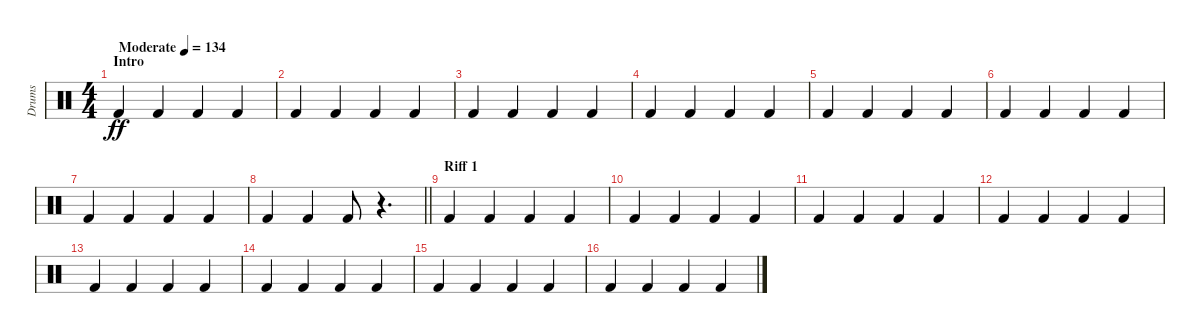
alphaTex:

\track ("Drums" "Drums") {instrument percussion}
\staff {score}
\articulation defaults
\ts (4 4)
\section ("" "Intro")
\tempo (134 "Moderate")
\clef neutral
\ks c "Kick (hit) 2".4{dy ff} "Kick (hit) 2".4 "Kick (hit) 2".4 "Kick (hit) 2".4
|
"Kick (hit) 2".4 "Kick (hit) 2".4 "Kick (hit) 2".4 "Kick (hit) 2".4 |
"Kick (hit) 2".4 "Kick (hit) 2".4 "Kick (hit) 2".4 "Kick (hit) 2".4 |
"Kick (hit) 2".4 "Kick (hit) 2".4 "Kick (hit) 2".4 "Kick (hit) 2".4 |
"Kick (hit) 2".4 "Kick (hit) 2".4 "Kick (hit) 2".4 "Kick (hit) 2".4 |
"Kick (hit) 2".4 "Kick (hit) 2".4 "Kick (hit) 2".4 "Kick (hit) 2".4 |
"Kick (hit) 2".4 "Kick (hit) 2".4 "Kick (hit) 2".4 "Kick (hit) 2".4 |
\barLineRight lightlight "Kick (hit) 2".4 "Kick (hit) 2".4 "Kick (hit) 2".8
r.4{d} |
\section ("" "Riff 1")
"Kick (hit) 2".4 "Kick (hit) 2".4 "Kick (hit) 2".4 "Kick (hit) 2".4 |
"Kick (hit) 2".4 "Kick (hit) 2".4 "Kick (hit) 2".4 "Kick (hit) 2".4 |
"Kick (hit) 2".4 "Kick (hit) 2".4 "Kick (hit) 2".4 "Kick (hit) 2".4 |
"Kick (hit) 2".4 "Kick (hit) 2".4 "Kick (hit) 2".4 "Kick (hit) 2".4 |
"Kick (hit) 2".4 "Kick (hit) 2".4 "Kick (hit) 2".4 "Kick (hit) 2".4 |
"Kick (hit) 2".4 "Kick (hit) 2".4 "Kick (hit) 2".4 "Kick (hit) 2".4 |
"Kick (hit) 2".4 "Kick (hit) 2".4 "Kick (hit) 2".4 "Kick (hit) 2".4 |
"Kick (hit) 2".4 "Kick (hit) 2".4 "Kick (hit) 2".4 "Kick (hit) 2".4
